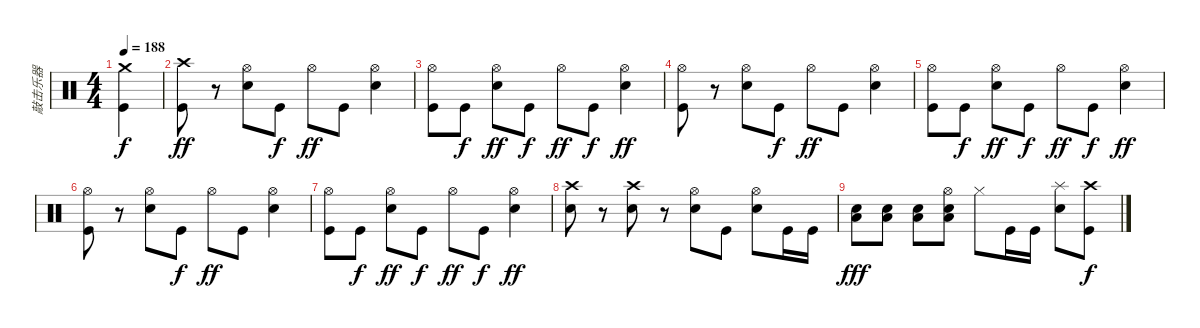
\track ("敲击乐器" "敲击乐器") {instrument percussion}
\staff {score}
\articulation defaults
\ts (4 4)
\tempo 188
\clef neutral
\ks c
("Kick (hit)" "Crash medium (hit)").4{dy f} |
("Crash high (hit)" "Kick (hit)").8{dy ff} r.8 ("Hi-Hat (open)" "Snare (hit) 2").8 "Kick (hit)".8{dy f} "Hi-Hat (open)".8{dy ff} "Kick (hit)".8 ("Hi-Hat (open)" "Snare (hit) 2").4 |
("Hi-Hat (open)" "Kick (hit)").8 "Kick (hit)".8{dy f} ("Hi-Hat (open)" "Snare (hit) 2").8{dy ff} "Kick (hit)".8{dy f} "Hi-Hat (open)".8{dy ff} "Kick (hit)".8{dy f} ("Hi-Hat (open)" "Snare (hit) 2").4{dy ff} |
("Hi-Hat (open)" "Kick (hit)").8 r.8 ("Hi-Hat (open)" "Snare (hit) 2").8 "Kick (hit)".8{dy f} "Hi-Hat (open)".8{dy ff} "Kick (hit)".8 ("Hi-Hat (open)" "Snare (hit) 2").4 |
("Hi-Hat (open)" "Kick (hit)").8 "Kick (hit)".8{dy f} ("Hi-Hat (open)" "Snare (hit) 2").8{dy ff} "Kick (hit)".8{dy f} "Hi-Hat (open)".8{dy ff} "Kick (hit)".8{dy f} ("Hi-Hat (open)" "Snare (hit) 2").4{dy ff} |
("Hi-Hat (open)" "Kick (hit)").8 r.8 ("Hi-Hat (open)" "Snare (hit) 2").8 "Kick (hit)".8{dy f} "Hi-Hat (open)".8{dy ff} "Kick (hit)".8 ("Hi-Hat (open)" "Snare (hit) 2").4 |
("Hi-Hat (open)" "Kick (hit)").8 "Kick (hit)".8{dy f} ("Hi-Hat (open)" "Snare (hit) 2").8{dy ff} "Kick (hit)".8{dy f} "Hi-Hat (open)".8{dy ff} "Kick (hit)".8{dy f} ("Hi-Hat (open)" "Snare (hit) 2").4{dy ff} |
("Crash high (hit)" "Snare (hit) 2").8 r.8 ("Crash high (hit)" "Snare (hit) 2").8 r.8 ("Hi-Hat (open)" "Snare (hit) 2").8 "Kick (hit)".8 ("Hi-Hat (open)" "Snare (hit) 2").8 "Kick (hit)".16 "Kick (hit)".16 |
("Snare (hit) 2" "Low Tom (hit)").8{dy fff} ("Snare (hit) 2" "Low Tom (hit)").8 ("Snare (hit) 2" "Low Tom (hit)").8 ("Snare (hit) 2" "Low Tom (hit)" "Hi-Hat (open)").8 "Hi-Hat (closed)".8 "Kick (hit)".16 "Kick (hit)".16 ("Splash (hit)" "Snare (hit) 2").8 ("Crash high (hit)" "Kick (hit)").8{dy f}
